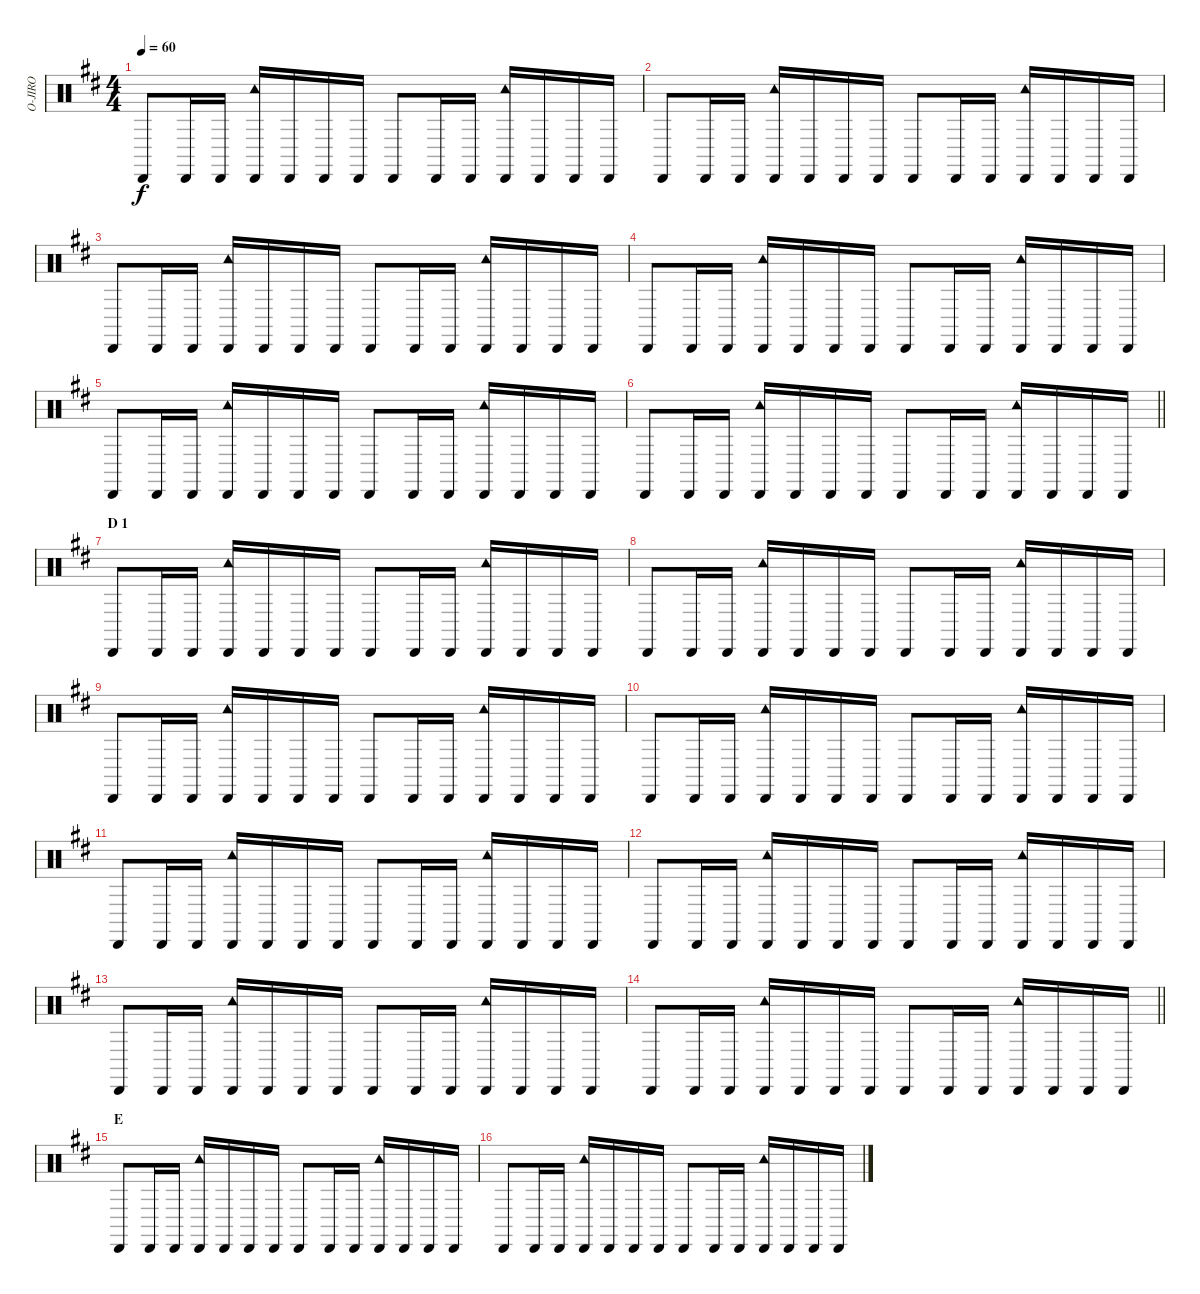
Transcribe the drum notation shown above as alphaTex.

\track ("O-JIRO" "O-JIRO") {instrument percussion}
\staff {score}
\articulation defaults
\ts (4 4)
\tempo 60
\clef neutral
\ks d "Cabasa (hit)".8{dy f} "Cabasa (hit)".16 "Cabasa (hit)".16
("Cabasa (hit)" "Tambourine (hit)").16 "Cabasa (hit)".16 "Cabasa (hit)".16 "Cabasa (hit)".16 "Cabasa (hit)".8 "Cabasa (hit)".16 "Cabasa (hit)".16 ("Cabasa (hit)" "Tambourine (hit)").16 "Cabasa (hit)".16 "Cabasa (hit)".16 "Cabasa (hit)".16 |
"Cabasa (hit)".8 "Cabasa (hit)".16 "Cabasa (hit)".16 ("Cabasa (hit)" "Tambourine (hit)").16 "Cabasa (hit)".16 "Cabasa (hit)".16 "Cabasa (hit)".16 "Cabasa (hit)".8 "Cabasa (hit)".16 "Cabasa (hit)".16 ("Cabasa (hit)" "Tambourine (hit)").16 "Cabasa (hit)".16 "Cabasa (hit)".16 "Cabasa (hit)".16 |
"Cabasa (hit)".8 "Cabasa (hit)".16 "Cabasa (hit)".16 ("Cabasa (hit)" "Tambourine (hit)").16 "Cabasa (hit)".16 "Cabasa (hit)".16 "Cabasa (hit)".16 "Cabasa (hit)".8 "Cabasa (hit)".16 "Cabasa (hit)".16 ("Cabasa (hit)" "Tambourine (hit)").16 "Cabasa (hit)".16 "Cabasa (hit)".16 "Cabasa (hit)".16 |
"Cabasa (hit)".8 "Cabasa (hit)".16 "Cabasa (hit)".16 ("Cabasa (hit)" "Tambourine (hit)").16 "Cabasa (hit)".16 "Cabasa (hit)".16 "Cabasa (hit)".16 "Cabasa (hit)".8 "Cabasa (hit)".16 "Cabasa (hit)".16 ("Cabasa (hit)" "Tambourine (hit)").16 "Cabasa (hit)".16 "Cabasa (hit)".16 "Cabasa (hit)".16 |
"Cabasa (hit)".8 "Cabasa (hit)".16 "Cabasa (hit)".16 ("Cabasa (hit)" "Tambourine (hit)").16 "Cabasa (hit)".16 "Cabasa (hit)".16 "Cabasa (hit)".16 "Cabasa (hit)".8 "Cabasa (hit)".16 "Cabasa (hit)".16 ("Cabasa (hit)" "Tambourine (hit)").16 "Cabasa (hit)".16 "Cabasa (hit)".16 "Cabasa (hit)".16 |
\barLineRight lightlight "Cabasa (hit)".8 "Cabasa (hit)".16 "Cabasa (hit)".16
("Cabasa (hit)" "Tambourine (hit)").16 "Cabasa (hit)".16 "Cabasa (hit)".16 "Cabasa (hit)".16 "Cabasa (hit)".8 "Cabasa (hit)".16 "Cabasa (hit)".16 ("Cabasa (hit)" "Tambourine (hit)").16 "Cabasa (hit)".16 "Cabasa (hit)".16 "Cabasa (hit)".16 |
\section ("" "D 1")
"Cabasa (hit)".8 "Cabasa (hit)".16 "Cabasa (hit)".16 ("Cabasa (hit)" "Tambourine (hit)").16 "Cabasa (hit)".16 "Cabasa (hit)".16 "Cabasa (hit)".16 "Cabasa (hit)".8 "Cabasa (hit)".16 "Cabasa (hit)".16 ("Cabasa (hit)" "Tambourine (hit)").16 "Cabasa (hit)".16 "Cabasa (hit)".16 "Cabasa (hit)".16 |
"Cabasa (hit)".8 "Cabasa (hit)".16 "Cabasa (hit)".16 ("Cabasa (hit)" "Tambourine (hit)").16 "Cabasa (hit)".16 "Cabasa (hit)".16 "Cabasa (hit)".16 "Cabasa (hit)".8 "Cabasa (hit)".16 "Cabasa (hit)".16 ("Cabasa (hit)" "Tambourine (hit)").16 "Cabasa (hit)".16 "Cabasa (hit)".16 "Cabasa (hit)".16 |
"Cabasa (hit)".8 "Cabasa (hit)".16 "Cabasa (hit)".16 ("Cabasa (hit)" "Tambourine (hit)").16 "Cabasa (hit)".16 "Cabasa (hit)".16 "Cabasa (hit)".16 "Cabasa (hit)".8 "Cabasa (hit)".16 "Cabasa (hit)".16 ("Cabasa (hit)" "Tambourine (hit)").16 "Cabasa (hit)".16 "Cabasa (hit)".16 "Cabasa (hit)".16 |
"Cabasa (hit)".8 "Cabasa (hit)".16 "Cabasa (hit)".16 ("Cabasa (hit)" "Tambourine (hit)").16 "Cabasa (hit)".16 "Cabasa (hit)".16 "Cabasa (hit)".16 "Cabasa (hit)".8 "Cabasa (hit)".16 "Cabasa (hit)".16 ("Cabasa (hit)" "Tambourine (hit)").16 "Cabasa (hit)".16 "Cabasa (hit)".16 "Cabasa (hit)".16 |
"Cabasa (hit)".8 "Cabasa (hit)".16 "Cabasa (hit)".16 ("Cabasa (hit)" "Tambourine (hit)").16 "Cabasa (hit)".16 "Cabasa (hit)".16 "Cabasa (hit)".16 "Cabasa (hit)".8 "Cabasa (hit)".16 "Cabasa (hit)".16 ("Cabasa (hit)" "Tambourine (hit)").16 "Cabasa (hit)".16 "Cabasa (hit)".16 "Cabasa (hit)".16 |
"Cabasa (hit)".8 "Cabasa (hit)".16 "Cabasa (hit)".16 ("Cabasa (hit)" "Tambourine (hit)").16 "Cabasa (hit)".16 "Cabasa (hit)".16 "Cabasa (hit)".16 "Cabasa (hit)".8 "Cabasa (hit)".16 "Cabasa (hit)".16 ("Cabasa (hit)" "Tambourine (hit)").16 "Cabasa (hit)".16 "Cabasa (hit)".16 "Cabasa (hit)".16 |
"Cabasa (hit)".8 "Cabasa (hit)".16 "Cabasa (hit)".16 ("Cabasa (hit)" "Tambourine (hit)").16 "Cabasa (hit)".16 "Cabasa (hit)".16 "Cabasa (hit)".16 "Cabasa (hit)".8 "Cabasa (hit)".16 "Cabasa (hit)".16 ("Cabasa (hit)" "Tambourine (hit)").16 "Cabasa (hit)".16 "Cabasa (hit)".16 "Cabasa (hit)".16 |
\barLineRight lightlight "Cabasa (hit)".8 "Cabasa (hit)".16 "Cabasa (hit)".16
("Cabasa (hit)" "Tambourine (hit)").16 "Cabasa (hit)".16 "Cabasa (hit)".16 "Cabasa (hit)".16 "Cabasa (hit)".8 "Cabasa (hit)".16 "Cabasa (hit)".16 ("Cabasa (hit)" "Tambourine (hit)").16 "Cabasa (hit)".16 "Cabasa (hit)".16 "Cabasa (hit)".16 |
\section ("" "E")
"Cabasa (hit)".8 "Cabasa (hit)".16 "Cabasa (hit)".16 ("Cabasa (hit)" "Tambourine (hit)").16 "Cabasa (hit)".16 "Cabasa (hit)".16 "Cabasa (hit)".16 "Cabasa (hit)".8 "Cabasa (hit)".16 "Cabasa (hit)".16 ("Cabasa (hit)" "Tambourine (hit)").16 "Cabasa (hit)".16 "Cabasa (hit)".16 "Cabasa (hit)".16 |
"Cabasa (hit)".8 "Cabasa (hit)".16 "Cabasa (hit)".16 ("Cabasa (hit)" "Tambourine (hit)").16 "Cabasa (hit)".16 "Cabasa (hit)".16 "Cabasa (hit)".16 "Cabasa (hit)".8 "Cabasa (hit)".16 "Cabasa (hit)".16 ("Cabasa (hit)" "Tambourine (hit)").16 "Cabasa (hit)".16 "Cabasa (hit)".16 "Cabasa (hit)".16
